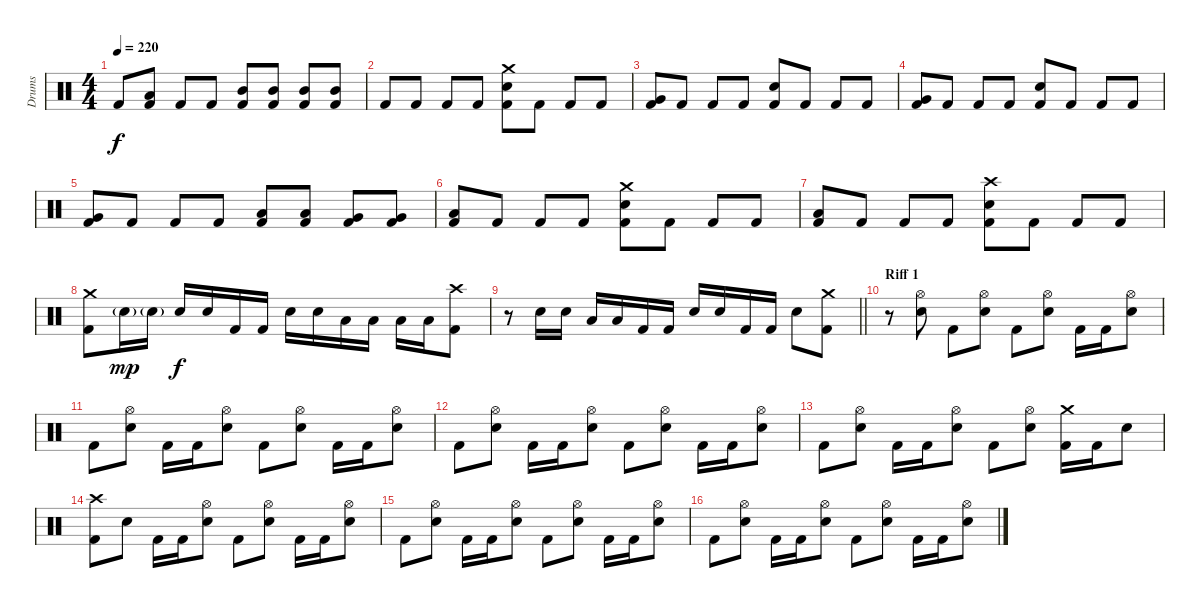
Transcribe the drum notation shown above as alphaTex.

\track ("Drums" "Drums") {instrument percussion}
\staff {score}
\articulation defaults
\ts (4 4)
\tempo 220
\clef neutral
\ks c "Kick (hit) 2".8{dy f}
("Low Tom (hit)" "Kick (hit) 2").8 "Kick (hit) 2".8 "Kick (hit) 2".8 ("Mid Tom (hit)" "Kick (hit) 2").8 ("Mid Tom (hit)" "Kick (hit) 2").8 ("Mid Tom (hit)" "Kick (hit) 2").8 ("Mid Tom (hit)" "Kick (hit) 2").8 |
"Kick (hit) 2".8 "Kick (hit) 2".8 "Kick (hit) 2".8 "Kick (hit) 2".8 ("Kick (hit) 2" "Electric Snare (hit)" "Crash medium (hit)").8 "Kick (hit) 2".8 "Kick (hit) 2".8 "Kick (hit) 2".8 |
("Kick (hit) 2" "Very Low Tom (hit)").8 "Kick (hit) 2".8 "Kick (hit) 2".8 "Kick (hit) 2".8 ("Kick (hit) 2" "Electric Snare (hit)").8 "Kick (hit) 2".8 "Kick (hit) 2".8 "Kick (hit) 2".8 |
("Kick (hit) 2" "Very Low Tom (hit)").8 "Kick (hit) 2".8 "Kick (hit) 2".8 "Kick (hit) 2".8 ("Kick (hit) 2" "Electric Snare (hit)").8 "Kick (hit) 2".8 "Kick (hit) 2".8 "Kick (hit) 2".8 |
("Kick (hit) 2" "Very Low Tom (hit)").8 "Kick (hit) 2".8 "Kick (hit) 2".8 "Kick (hit) 2".8 ("Kick (hit) 2" "Low Tom (hit)").8 ("Kick (hit) 2" "Low Tom (hit)").8 ("Kick (hit) 2" "Very Low Tom (hit)").8 ("Kick (hit) 2" "Very Low Tom (hit)").8 |
("Kick (hit) 2" "Low Floor Tom (hit)").8 "Kick (hit) 2".8 "Kick (hit) 2".8 "Kick (hit) 2".8 ("Kick (hit) 2" "Electric Snare (hit)" "Crash medium (hit)").8 "Kick (hit) 2".8 "Kick (hit) 2".8 "Kick (hit) 2".8 |
("Kick (hit) 2" "Low Floor Tom (hit)").8 "Kick (hit) 2".8 "Kick (hit) 2".8 "Kick (hit) 2".8 ("Kick (hit) 2" "Electric Snare (hit)" "Crash high (hit)").8 "Kick (hit) 2".8 "Kick (hit) 2".8 "Kick (hit) 2".8 |
("Crash medium (hit)" "Kick (hit) 2").8 "Electric Snare (hit)"{g}.16{dy mp} "Electric Snare (hit)"{g}.16 "Electric Snare (hit)".16{dy f} "Electric Snare (hit)".16 "Kick (hit) 2".16 "Kick (hit) 2".16 "Electric Snare (hit)".16 "Electric Snare (hit)".16 "Low Tom (hit)".16 "Low Tom (hit)".16 "Low Tom (hit)".16 "Low Tom (hit)".16 ("Kick (hit) 2" "Crash high (hit)").8 |
\barLineRight lightlight
r.8 "Electric Snare (hit)".16 "Electric Snare (hit)".16 "Low Tom (hit)".16 "Low Tom (hit)".16 "Kick (hit) 2".16 "Kick (hit) 2".16 "Electric Snare (hit)".16 "Electric Snare (hit)".16 "Kick (hit) 2".16 "Kick (hit) 2".16 "Electric Snare (hit)".8 ("Crash medium (hit)" "Kick (hit) 2").8 |
\section ("" "Riff 1")
r.8 ("Electric Snare (hit)" "Hi-Hat (open)").8 "Kick (hit) 2".8 ("Electric Snare (hit)" "Hi-Hat (open)").8 "Kick (hit) 2".8 ("Electric Snare (hit)" "Hi-Hat (open)").8 "Kick (hit) 2".16 "Kick (hit) 2".16 ("Electric Snare (hit)" "Hi-Hat (open)").8 |
"Kick (hit) 2".8 ("Electric Snare (hit)" "Hi-Hat (open)").8 "Kick (hit) 2".16 "Kick (hit) 2".16 ("Electric Snare (hit)" "Hi-Hat (open)").8 "Kick (hit) 2".8 ("Electric Snare (hit)" "Hi-Hat (open)").8 "Kick (hit) 2".16 "Kick (hit) 2".16 ("Electric Snare (hit)" "Hi-Hat (open)").8 |
"Kick (hit) 2".8 ("Electric Snare (hit)" "Hi-Hat (open)").8 "Kick (hit) 2".16 "Kick (hit) 2".16 ("Electric Snare (hit)" "Hi-Hat (open)").8 "Kick (hit) 2".8 ("Electric Snare (hit)" "Hi-Hat (open)").8 "Kick (hit) 2".16 "Kick (hit) 2".16 ("Electric Snare (hit)" "Hi-Hat (open)").8 |
"Kick (hit) 2".8 ("Electric Snare (hit)" "Hi-Hat (open)").8 "Kick (hit) 2".16 "Kick (hit) 2".16 ("Electric Snare (hit)" "Hi-Hat (open)").8 "Kick (hit) 2".8 ("Electric Snare (hit)" "Hi-Hat (open)").8 ("Kick (hit) 2" "Crash medium (hit)").16 "Kick (hit) 2".16 "Electric Snare (hit)".8 |
("Kick (hit) 2" "Crash high (hit)").8 "Electric Snare (hit)".8 "Kick (hit) 2".16 "Kick (hit) 2".16 ("Electric Snare (hit)" "Hi-Hat (open)").8 "Kick (hit) 2".8 ("Electric Snare (hit)" "Hi-Hat (open)").8 "Kick (hit) 2".16 "Kick (hit) 2".16 ("Electric Snare (hit)" "Hi-Hat (open)").8 |
"Kick (hit) 2".8 ("Electric Snare (hit)" "Hi-Hat (open)").8 "Kick (hit) 2".16 "Kick (hit) 2".16 ("Electric Snare (hit)" "Hi-Hat (open)").8 "Kick (hit) 2".8 ("Electric Snare (hit)" "Hi-Hat (open)").8 "Kick (hit) 2".16 "Kick (hit) 2".16 ("Electric Snare (hit)" "Hi-Hat (open)").8 |
"Kick (hit) 2".8 ("Electric Snare (hit)" "Hi-Hat (open)").8 "Kick (hit) 2".16 "Kick (hit) 2".16 ("Electric Snare (hit)" "Hi-Hat (open)").8 "Kick (hit) 2".8 ("Electric Snare (hit)" "Hi-Hat (open)").8 "Kick (hit) 2".16 "Kick (hit) 2".16 ("Electric Snare (hit)" "Hi-Hat (open)").8
